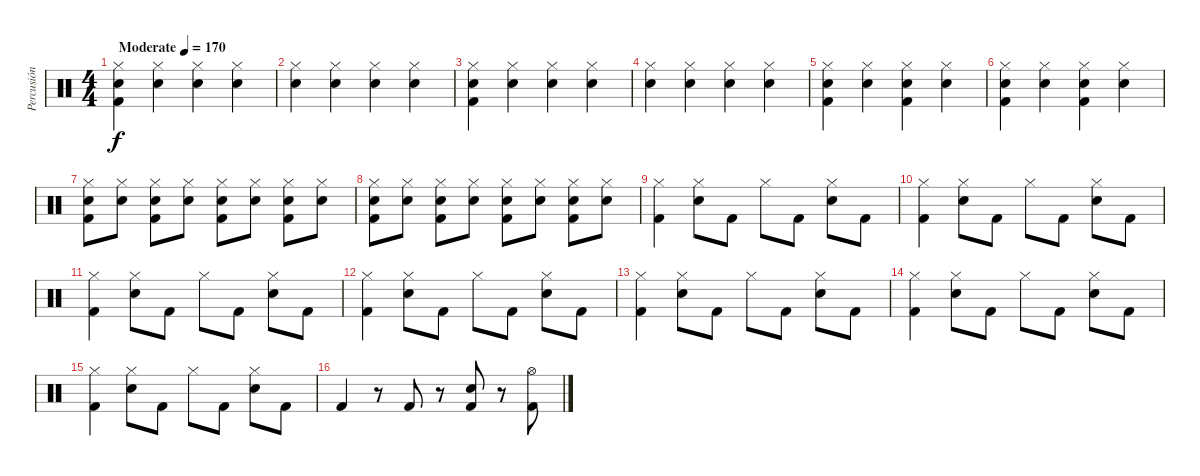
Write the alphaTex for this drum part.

\track ("Percusión" "Percusión") {instrument percussion}
\staff {score}
\articulation defaults
\ts (4 4)
\tempo (170 "Moderate")
\clef neutral
\ks c
("Hi-Hat (closed)" "Snare (hit) 2" "Kick (hit) 2").4{dy f} ("Hi-Hat (closed)" "Snare (hit) 2").4 ("Hi-Hat (closed)" "Snare (hit) 2").4 ("Hi-Hat (closed)" "Snare (hit) 2").4 |
("Hi-Hat (closed)" "Snare (hit) 2").4 ("Hi-Hat (closed)" "Snare (hit) 2").4 ("Hi-Hat (closed)" "Snare (hit) 2").4 ("Hi-Hat (closed)" "Snare (hit) 2").4 |
("Hi-Hat (closed)" "Snare (hit) 2" "Kick (hit) 2").4 ("Hi-Hat (closed)" "Snare (hit) 2").4 ("Hi-Hat (closed)" "Snare (hit) 2").4 ("Hi-Hat (closed)" "Snare (hit) 2").4 |
("Hi-Hat (closed)" "Snare (hit) 2").4 ("Hi-Hat (closed)" "Snare (hit) 2").4 ("Hi-Hat (closed)" "Snare (hit) 2").4 ("Hi-Hat (closed)" "Snare (hit) 2").4 |
("Hi-Hat (closed)" "Snare (hit) 2" "Kick (hit) 2").4 ("Hi-Hat (closed)" "Snare (hit) 2").4 ("Hi-Hat (closed)" "Snare (hit) 2" "Kick (hit) 2").4 ("Hi-Hat (closed)" "Snare (hit) 2").4 |
("Hi-Hat (closed)" "Snare (hit) 2" "Kick (hit) 2").4 ("Hi-Hat (closed)" "Snare (hit) 2").4 ("Hi-Hat (closed)" "Snare (hit) 2" "Kick (hit) 2").4 ("Hi-Hat (closed)" "Snare (hit) 2").4 |
("Hi-Hat (closed)" "Snare (hit) 2" "Kick (hit) 2").8 ("Hi-Hat (closed)" "Snare (hit) 2").8 ("Hi-Hat (closed)" "Snare (hit) 2" "Kick (hit) 2").8 ("Hi-Hat (closed)" "Snare (hit) 2").8 ("Hi-Hat (closed)" "Snare (hit) 2" "Kick (hit) 2").8 ("Hi-Hat (closed)" "Snare (hit) 2").8 ("Hi-Hat (closed)" "Snare (hit) 2" "Kick (hit) 2").8 ("Hi-Hat (closed)" "Snare (hit) 2").8 |
("Hi-Hat (closed)" "Snare (hit) 2" "Kick (hit) 2").8 ("Hi-Hat (closed)" "Snare (hit) 2").8 ("Hi-Hat (closed)" "Snare (hit) 2" "Kick (hit) 2").8 ("Hi-Hat (closed)" "Snare (hit) 2").8 ("Hi-Hat (closed)" "Snare (hit) 2" "Kick (hit) 2").8 ("Hi-Hat (closed)" "Snare (hit) 2").8 ("Hi-Hat (closed)" "Snare (hit) 2" "Kick (hit) 2").8 ("Hi-Hat (closed)" "Snare (hit) 2").8 |
("Hi-Hat (closed)" "Kick (hit) 2").4 ("Hi-Hat (closed)" "Snare (hit) 2").8 "Kick (hit) 2".8 "Hi-Hat (closed)".8 "Kick (hit) 2".8 ("Hi-Hat (closed)" "Snare (hit) 2").8 "Kick (hit) 2".8 |
("Hi-Hat (closed)" "Kick (hit) 2").4 ("Hi-Hat (closed)" "Snare (hit) 2").8 "Kick (hit) 2".8 "Hi-Hat (closed)".8 "Kick (hit) 2".8 ("Hi-Hat (closed)" "Snare (hit) 2").8 "Kick (hit) 2".8 |
("Hi-Hat (closed)" "Kick (hit) 2").4 ("Hi-Hat (closed)" "Snare (hit) 2").8 "Kick (hit) 2".8 "Hi-Hat (closed)".8 "Kick (hit) 2".8 ("Hi-Hat (closed)" "Snare (hit) 2").8 "Kick (hit) 2".8 |
("Hi-Hat (closed)" "Kick (hit) 2").4 ("Hi-Hat (closed)" "Snare (hit) 2").8 "Kick (hit) 2".8 "Hi-Hat (closed)".8 "Kick (hit) 2".8 ("Hi-Hat (closed)" "Snare (hit) 2").8 "Kick (hit) 2".8 |
("Hi-Hat (closed)" "Kick (hit) 2").4 ("Hi-Hat (closed)" "Snare (hit) 2").8 "Kick (hit) 2".8 "Hi-Hat (closed)".8 "Kick (hit) 2".8 ("Hi-Hat (closed)" "Snare (hit) 2").8 "Kick (hit) 2".8 |
("Hi-Hat (closed)" "Kick (hit) 2").4 ("Hi-Hat (closed)" "Snare (hit) 2").8 "Kick (hit) 2".8 "Hi-Hat (closed)".8 "Kick (hit) 2".8 ("Hi-Hat (closed)" "Snare (hit) 2").8 "Kick (hit) 2".8 |
("Hi-Hat (closed)" "Kick (hit) 2").4 ("Hi-Hat (closed)" "Snare (hit) 2").8 "Kick (hit) 2".8 "Hi-Hat (closed)".8 "Kick (hit) 2".8 ("Hi-Hat (closed)" "Snare (hit) 2").8 "Kick (hit) 2".8 |
"Kick (hit) 2".4 r.8 "Kick (hit) 2".8 r.8 ("Snare (hit) 2" "Kick (hit) 2").8 r.8 ("Hi-Hat (open)" "Kick (hit) 2").8
